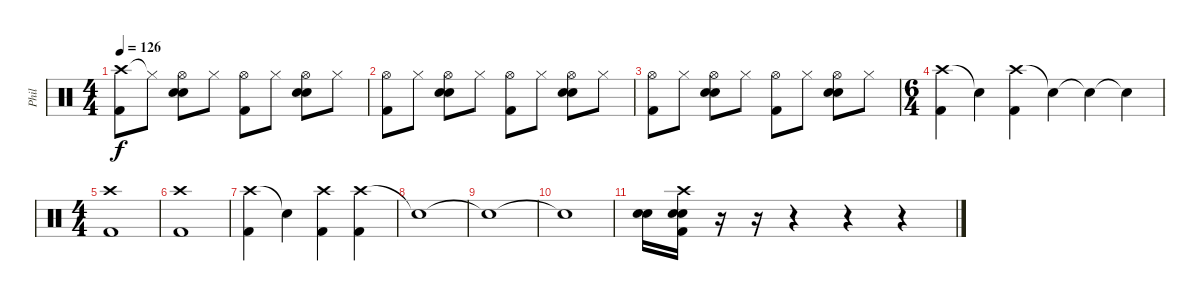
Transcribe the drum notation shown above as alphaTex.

\track ("Phil" "Phil") {instrument percussion}
\staff {score}
\articulation defaults
\ts (4 4)
\tempo 126
\clef neutral
\ks c
("Crash high (hit)" "Kick (hit) 2").8{dy f} "Hi-Hat (closed)"{t}.8 ("Hi-Hat (open)" "Snare (hit) 2" "Electric Snare (hit)").8 "Hi-Hat (closed)".8 ("Hi-Hat (open)" "Kick (hit) 2").8 "Hi-Hat (closed)".8 ("Hi-Hat (open)" "Snare (hit) 2" "Electric Snare (hit)").8 "Hi-Hat (closed)".8 |
("Hi-Hat (open)" "Kick (hit) 2").8 "Hi-Hat (closed)".8 ("Hi-Hat (open)" "Snare (hit) 2" "Electric Snare (hit)").8 "Hi-Hat (closed)".8 ("Hi-Hat (open)" "Kick (hit) 2").8 "Hi-Hat (closed)".8 ("Hi-Hat (open)" "Snare (hit) 2" "Electric Snare (hit)").8 "Hi-Hat (closed)".8 |
("Hi-Hat (open)" "Kick (hit) 2").8 "Hi-Hat (closed)".8 ("Hi-Hat (open)" "Snare (hit) 2" "Electric Snare (hit)").8 "Hi-Hat (closed)".8 ("Hi-Hat (open)" "Kick (hit) 2").8 "Hi-Hat (closed)".8 ("Hi-Hat (open)" "Snare (hit) 2" "Electric Snare (hit)").8 "Hi-Hat (closed)".8 |
\ts (6 4)
("Crash high (hit)" "Kick (hit) 2").4 "Snare (hit)"{t}.4 ("Crash high (hit)" "Kick (hit) 2").4 "Snare (hit)"{t}.4 "Snare (hit)"{t}.4 "Snare (hit)"{t}.4 |
\ts (4 4)
("Crash high (hit)" "Kick (hit) 2").1 |
("Crash high (hit)" "Kick (hit) 2").1 |
("Crash high (hit)" "Kick (hit) 2").4 "Snare (hit)"{t}.4 ("Crash high (hit)" "Kick (hit) 2").4 ("Crash high (hit)" "Kick (hit) 2").4 |
"Snare (hit)"{t}.1 |
"Snare (hit)"{t}.1 |
"Snare (hit)"{t}.1 |
("Snare (hit) 2" "Electric Snare (hit)").16 ("Crash high (hit)" "Snare (hit) 2" "Electric Snare (hit)" "Kick (hit) 2").16 r.16 r.16 r.4 r.4 r.4
